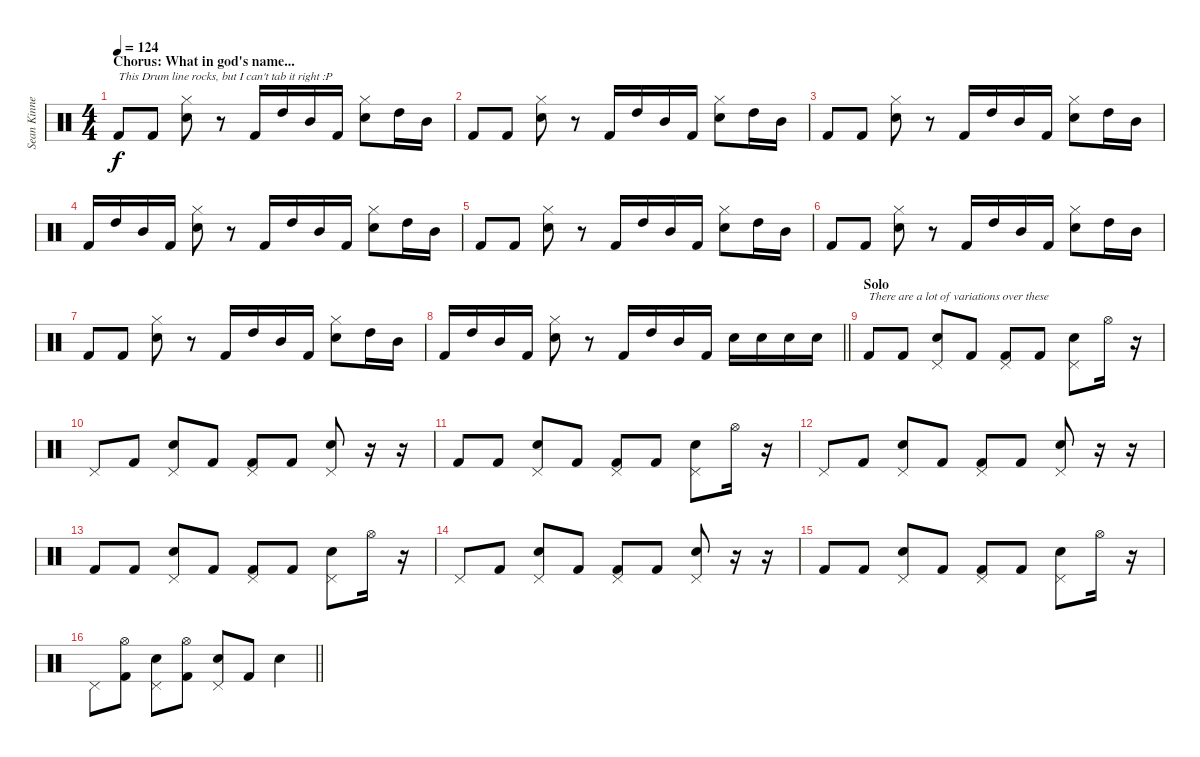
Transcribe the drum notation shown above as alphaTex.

\track ("Sean Kinney" "Sean Kinne") {instrument percussion}
\staff {score}
\articulation defaults
\ts (4 4)
\section ("" "Chorus: What in god's name...")
\tempo 124
\clef neutral
\ks c "Kick (hit) 2".8{txt "This Drum line rocks, but I can't tab it right :P" dy f} "Kick (hit) 2".8
("Hi-Hat (closed)" "Snare (hit) 2").8 r.8 "Kick (hit) 2".16 "High Tom (hit)".16 "Mid Tom (hit)".16 "Kick (hit) 2".16 ("Hi-Hat (closed)" "Snare (hit) 2").8 "High Tom (hit)".16 "Mid Tom (hit)".16 |
"Kick (hit) 2".8 "Kick (hit) 2".8 ("Hi-Hat (closed)" "Snare (hit) 2").8 r.8 "Kick (hit) 2".16 "High Tom (hit)".16 "Mid Tom (hit)".16 "Kick (hit) 2".16 ("Hi-Hat (closed)" "Snare (hit) 2").8 "High Tom (hit)".16 "Mid Tom (hit)".16 |
"Kick (hit) 2".8 "Kick (hit) 2".8 ("Hi-Hat (closed)" "Snare (hit) 2").8 r.8 "Kick (hit) 2".16 "High Tom (hit)".16 "Mid Tom (hit)".16 "Kick (hit) 2".16 ("Hi-Hat (closed)" "Snare (hit) 2").8 "High Tom (hit)".16 "Mid Tom (hit)".16 |
"Kick (hit) 2".16 "High Tom (hit)".16 "Mid Tom (hit)".16 "Kick (hit) 2".16 ("Hi-Hat (closed)" "Snare (hit) 2").8 r.8 "Kick (hit) 2".16 "High Tom (hit)".16 "Mid Tom (hit)".16 "Kick (hit) 2".16 ("Hi-Hat (closed)" "Snare (hit) 2").8 "High Tom (hit)".16 "Mid Tom (hit)".16 |
"Kick (hit) 2".8 "Kick (hit) 2".8 ("Hi-Hat (closed)" "Snare (hit) 2").8 r.8 "Kick (hit) 2".16 "High Tom (hit)".16 "Mid Tom (hit)".16 "Kick (hit) 2".16 ("Hi-Hat (closed)" "Snare (hit) 2").8 "High Tom (hit)".16 "Mid Tom (hit)".16 |
"Kick (hit) 2".8 "Kick (hit) 2".8 ("Hi-Hat (closed)" "Snare (hit) 2").8 r.8 "Kick (hit) 2".16 "High Tom (hit)".16 "Mid Tom (hit)".16 "Kick (hit) 2".16 ("Hi-Hat (closed)" "Snare (hit) 2").8 "High Tom (hit)".16 "Mid Tom (hit)".16 |
"Kick (hit) 2".8 "Kick (hit) 2".8 ("Hi-Hat (closed)" "Snare (hit) 2").8 r.8 "Kick (hit) 2".16 "High Tom (hit)".16 "Mid Tom (hit)".16 "Kick (hit) 2".16 ("Hi-Hat (closed)" "Snare (hit) 2").8 "High Tom (hit)".16 "Mid Tom (hit)".16 |
\barLineRight lightlight "Kick (hit) 2".16 "High Tom (hit)".16 "Mid Tom (hit)".16 "Kick (hit) 2".16
("Hi-Hat (closed)" "Snare (hit) 2").8 r.8 "Kick (hit) 2".16 "High Tom (hit)".16 "Mid Tom (hit)".16 "Kick (hit) 2".16 "Snare (hit) 2".16 "Snare (hit) 2".16 "Snare (hit) 2".16 "Snare (hit) 2".16 |
\section ("" "Solo")
"Kick (hit) 2".8{txt "There are a lot of variations over these "} "Kick (hit) 2".8 ("Pedal Hi-Hat (hit)" "Snare (hit) 2").8 "Kick (hit) 2".8 ("Pedal Hi-Hat (hit)" "Kick (hit) 2").8 "Kick (hit) 2".8 ("Pedal Hi-Hat (hit)" "Snare (hit) 2").8 "Hi-Hat (open)".16 r.16 |
"Pedal Hi-Hat (hit)".8 "Kick (hit) 2".8 ("Pedal Hi-Hat (hit)" "Snare (hit) 2").8 "Kick (hit) 2".8 ("Pedal Hi-Hat (hit)" "Kick (hit) 2").8 "Kick (hit) 2".8 ("Pedal Hi-Hat (hit)" "Snare (hit) 2").8 r.16 r.16 |
"Kick (hit) 2".8 "Kick (hit) 2".8 ("Pedal Hi-Hat (hit)" "Snare (hit) 2").8 "Kick (hit) 2".8 ("Pedal Hi-Hat (hit)" "Kick (hit) 2").8 "Kick (hit) 2".8 ("Pedal Hi-Hat (hit)" "Snare (hit) 2").8 "Hi-Hat (open)".16 r.16 |
"Pedal Hi-Hat (hit)".8 "Kick (hit) 2".8 ("Pedal Hi-Hat (hit)" "Snare (hit) 2").8 "Kick (hit) 2".8 ("Pedal Hi-Hat (hit)" "Kick (hit) 2").8 "Kick (hit) 2".8 ("Pedal Hi-Hat (hit)" "Snare (hit) 2").8 r.16 r.16 |
"Kick (hit) 2".8 "Kick (hit) 2".8 ("Pedal Hi-Hat (hit)" "Snare (hit) 2").8 "Kick (hit) 2".8 ("Pedal Hi-Hat (hit)" "Kick (hit) 2").8 "Kick (hit) 2".8 ("Pedal Hi-Hat (hit)" "Snare (hit) 2").8 "Hi-Hat (open)".16 r.16 |
"Pedal Hi-Hat (hit)".8 "Kick (hit) 2".8 ("Pedal Hi-Hat (hit)" "Snare (hit) 2").8 "Kick (hit) 2".8 ("Pedal Hi-Hat (hit)" "Kick (hit) 2").8 "Kick (hit) 2".8 ("Pedal Hi-Hat (hit)" "Snare (hit) 2").8 r.16 r.16 |
"Kick (hit) 2".8 "Kick (hit) 2".8 ("Pedal Hi-Hat (hit)" "Snare (hit) 2").8 "Kick (hit) 2".8 ("Pedal Hi-Hat (hit)" "Kick (hit) 2").8 "Kick (hit) 2".8 ("Pedal Hi-Hat (hit)" "Snare (hit) 2").8 "Hi-Hat (open)".16 r.16 |
\barLineRight lightlight "Pedal Hi-Hat (hit)".8
("Hi-Hat (open)" "Kick (hit) 2").8 ("Pedal Hi-Hat (hit)" "Snare (hit) 2").8 ("Hi-Hat (open)" "Kick (hit) 2").8 ("Pedal Hi-Hat (hit)" "Snare (hit) 2").8 "Kick (hit) 2".8 "Snare (hit) 2".4
